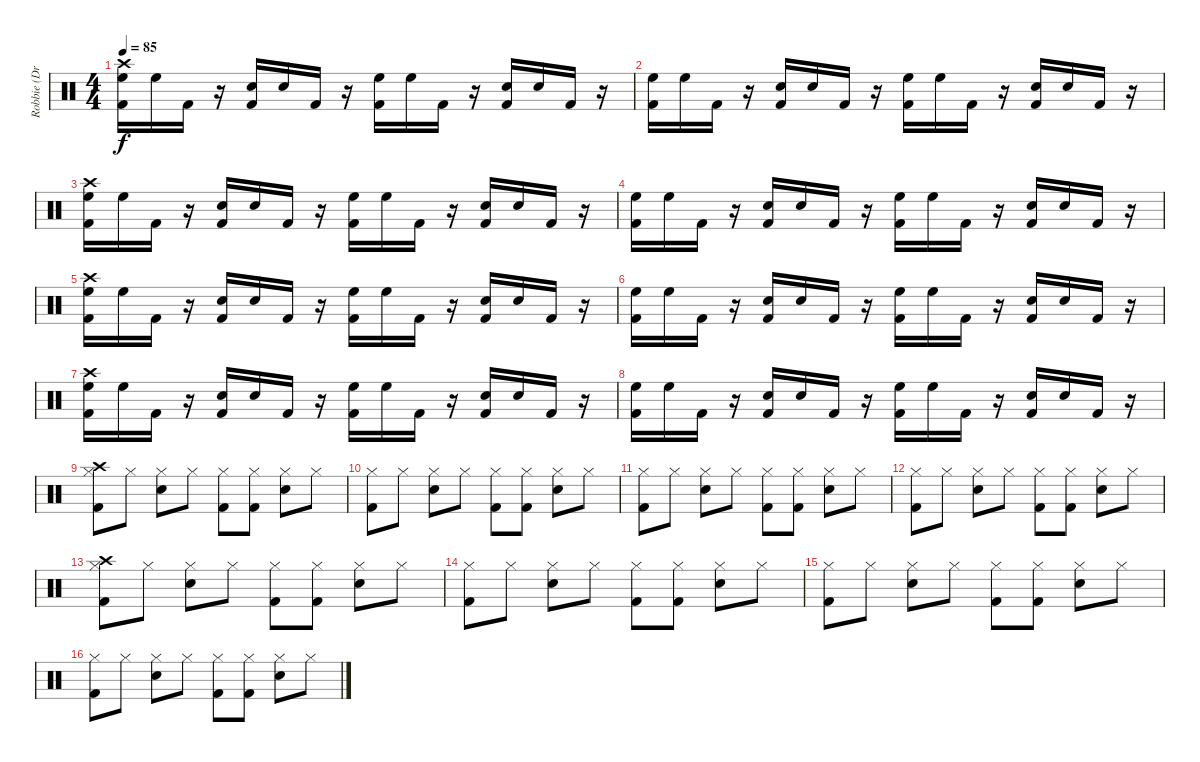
\track ("Robbie (Drums)" "Robbie (Dr") {instrument percussion}
\staff {score}
\articulation defaults
\ts (4 4)
\tempo 85
\clef neutral
\ks c
("Crash high (hit)" "High Floor Tom (hit)" "Kick (hit) 2").16{dy f} "High Floor Tom (hit)".16 "Kick (hit) 2".16 r.16 ("Electric Snare (hit)" "Kick (hit) 2").16 "Electric Snare (hit)".16 "Kick (hit) 2".16 r.16 ("High Floor Tom (hit)" "Kick (hit) 2").16 "High Floor Tom (hit)".16 "Kick (hit) 2".16 r.16 ("Electric Snare (hit)" "Kick (hit) 2").16 "Electric Snare (hit)".16 "Kick (hit) 2".16 r.16 |
("High Floor Tom (hit)" "Kick (hit) 2").16 "High Floor Tom (hit)".16 "Kick (hit) 2".16 r.16 ("Electric Snare (hit)" "Kick (hit) 2").16 "Electric Snare (hit)".16 "Kick (hit) 2".16 r.16 ("High Floor Tom (hit)" "Kick (hit) 2").16 "High Floor Tom (hit)".16 "Kick (hit) 2".16 r.16 ("Electric Snare (hit)" "Kick (hit) 2").16 "Electric Snare (hit)".16 "Kick (hit) 2".16 r.16 |
("Crash high (hit)" "High Floor Tom (hit)" "Kick (hit) 2").16 "High Floor Tom (hit)".16 "Kick (hit) 2".16 r.16 ("Electric Snare (hit)" "Kick (hit) 2").16 "Electric Snare (hit)".16 "Kick (hit) 2".16 r.16 ("High Floor Tom (hit)" "Kick (hit) 2").16 "High Floor Tom (hit)".16 "Kick (hit) 2".16 r.16 ("Electric Snare (hit)" "Kick (hit) 2").16 "Electric Snare (hit)".16 "Kick (hit) 2".16 r.16 |
("High Floor Tom (hit)" "Kick (hit) 2").16 "High Floor Tom (hit)".16 "Kick (hit) 2".16 r.16 ("Electric Snare (hit)" "Kick (hit) 2").16 "Electric Snare (hit)".16 "Kick (hit) 2".16 r.16 ("High Floor Tom (hit)" "Kick (hit) 2").16 "High Floor Tom (hit)".16 "Kick (hit) 2".16 r.16 ("Electric Snare (hit)" "Kick (hit) 2").16 "Electric Snare (hit)".16 "Kick (hit) 2".16 r.16 |
("Crash high (hit)" "High Floor Tom (hit)" "Kick (hit) 2").16 "High Floor Tom (hit)".16 "Kick (hit) 2".16 r.16 ("Electric Snare (hit)" "Kick (hit) 2").16 "Electric Snare (hit)".16 "Kick (hit) 2".16 r.16 ("High Floor Tom (hit)" "Kick (hit) 2").16 "High Floor Tom (hit)".16 "Kick (hit) 2".16 r.16 ("Electric Snare (hit)" "Kick (hit) 2").16 "Electric Snare (hit)".16 "Kick (hit) 2".16 r.16 |
("High Floor Tom (hit)" "Kick (hit) 2").16 "High Floor Tom (hit)".16 "Kick (hit) 2".16 r.16 ("Electric Snare (hit)" "Kick (hit) 2").16 "Electric Snare (hit)".16 "Kick (hit) 2".16 r.16 ("High Floor Tom (hit)" "Kick (hit) 2").16 "High Floor Tom (hit)".16 "Kick (hit) 2".16 r.16 ("Electric Snare (hit)" "Kick (hit) 2").16 "Electric Snare (hit)".16 "Kick (hit) 2".16 r.16 |
("Crash high (hit)" "High Floor Tom (hit)" "Kick (hit) 2").16 "High Floor Tom (hit)".16 "Kick (hit) 2".16 r.16 ("Electric Snare (hit)" "Kick (hit) 2").16 "Electric Snare (hit)".16 "Kick (hit) 2".16 r.16 ("High Floor Tom (hit)" "Kick (hit) 2").16 "High Floor Tom (hit)".16 "Kick (hit) 2".16 r.16 ("Electric Snare (hit)" "Kick (hit) 2").16 "Electric Snare (hit)".16 "Kick (hit) 2".16 r.16 |
("High Floor Tom (hit)" "Kick (hit) 2").16 "High Floor Tom (hit)".16 "Kick (hit) 2".16 r.16 ("Electric Snare (hit)" "Kick (hit) 2").16 "Electric Snare (hit)".16 "Kick (hit) 2".16 r.16 ("High Floor Tom (hit)" "Kick (hit) 2").16 "High Floor Tom (hit)".16 "Kick (hit) 2".16 r.16 ("Electric Snare (hit)" "Kick (hit) 2").16 "Electric Snare (hit)".16 "Kick (hit) 2".16 r.16 |
("Crash high (hit)" "Hi-Hat (closed)" "Kick (hit) 2").8 "Hi-Hat (closed)".8 ("Hi-Hat (closed)" "Electric Snare (hit)").8 "Hi-Hat (closed)".8 ("Hi-Hat (closed)" "Kick (hit) 2").8 ("Hi-Hat (closed)" "Kick (hit) 2").8 ("Hi-Hat (closed)" "Electric Snare (hit)").8 "Hi-Hat (closed)".8 |
("Hi-Hat (closed)" "Kick (hit) 2").8 "Hi-Hat (closed)".8 ("Hi-Hat (closed)" "Electric Snare (hit)").8 "Hi-Hat (closed)".8 ("Hi-Hat (closed)" "Kick (hit) 2").8 ("Hi-Hat (closed)" "Kick (hit) 2").8 ("Hi-Hat (closed)" "Electric Snare (hit)").8 "Hi-Hat (closed)".8 |
("Hi-Hat (closed)" "Kick (hit) 2").8 "Hi-Hat (closed)".8 ("Hi-Hat (closed)" "Electric Snare (hit)").8 "Hi-Hat (closed)".8 ("Hi-Hat (closed)" "Kick (hit) 2").8 ("Hi-Hat (closed)" "Kick (hit) 2").8 ("Hi-Hat (closed)" "Electric Snare (hit)").8 "Hi-Hat (closed)".8 |
("Hi-Hat (closed)" "Kick (hit) 2").8 "Hi-Hat (closed)".8 ("Hi-Hat (closed)" "Electric Snare (hit)").8 "Hi-Hat (closed)".8 ("Hi-Hat (closed)" "Kick (hit) 2").8 ("Hi-Hat (closed)" "Kick (hit) 2").8 ("Hi-Hat (closed)" "Electric Snare (hit)").8 "Hi-Hat (closed)".8 |
("Crash high (hit)" "Hi-Hat (closed)" "Kick (hit) 2").8 "Hi-Hat (closed)".8 ("Hi-Hat (closed)" "Electric Snare (hit)").8 "Hi-Hat (closed)".8 ("Hi-Hat (closed)" "Kick (hit) 2").8 ("Hi-Hat (closed)" "Kick (hit) 2").8 ("Hi-Hat (closed)" "Electric Snare (hit)").8 "Hi-Hat (closed)".8 |
("Hi-Hat (closed)" "Kick (hit) 2").8 "Hi-Hat (closed)".8 ("Hi-Hat (closed)" "Electric Snare (hit)").8 "Hi-Hat (closed)".8 ("Hi-Hat (closed)" "Kick (hit) 2").8 ("Hi-Hat (closed)" "Kick (hit) 2").8 ("Hi-Hat (closed)" "Electric Snare (hit)").8 "Hi-Hat (closed)".8 |
("Hi-Hat (closed)" "Kick (hit) 2").8 "Hi-Hat (closed)".8 ("Hi-Hat (closed)" "Electric Snare (hit)").8 "Hi-Hat (closed)".8 ("Hi-Hat (closed)" "Kick (hit) 2").8 ("Hi-Hat (closed)" "Kick (hit) 2").8 ("Hi-Hat (closed)" "Electric Snare (hit)").8 "Hi-Hat (closed)".8 |
("Hi-Hat (closed)" "Kick (hit) 2").8 "Hi-Hat (closed)".8 ("Hi-Hat (closed)" "Electric Snare (hit)").8 "Hi-Hat (closed)".8 ("Hi-Hat (closed)" "Kick (hit) 2").8 ("Hi-Hat (closed)" "Kick (hit) 2").8 ("Hi-Hat (closed)" "Electric Snare (hit)").8 "Hi-Hat (closed)".8
